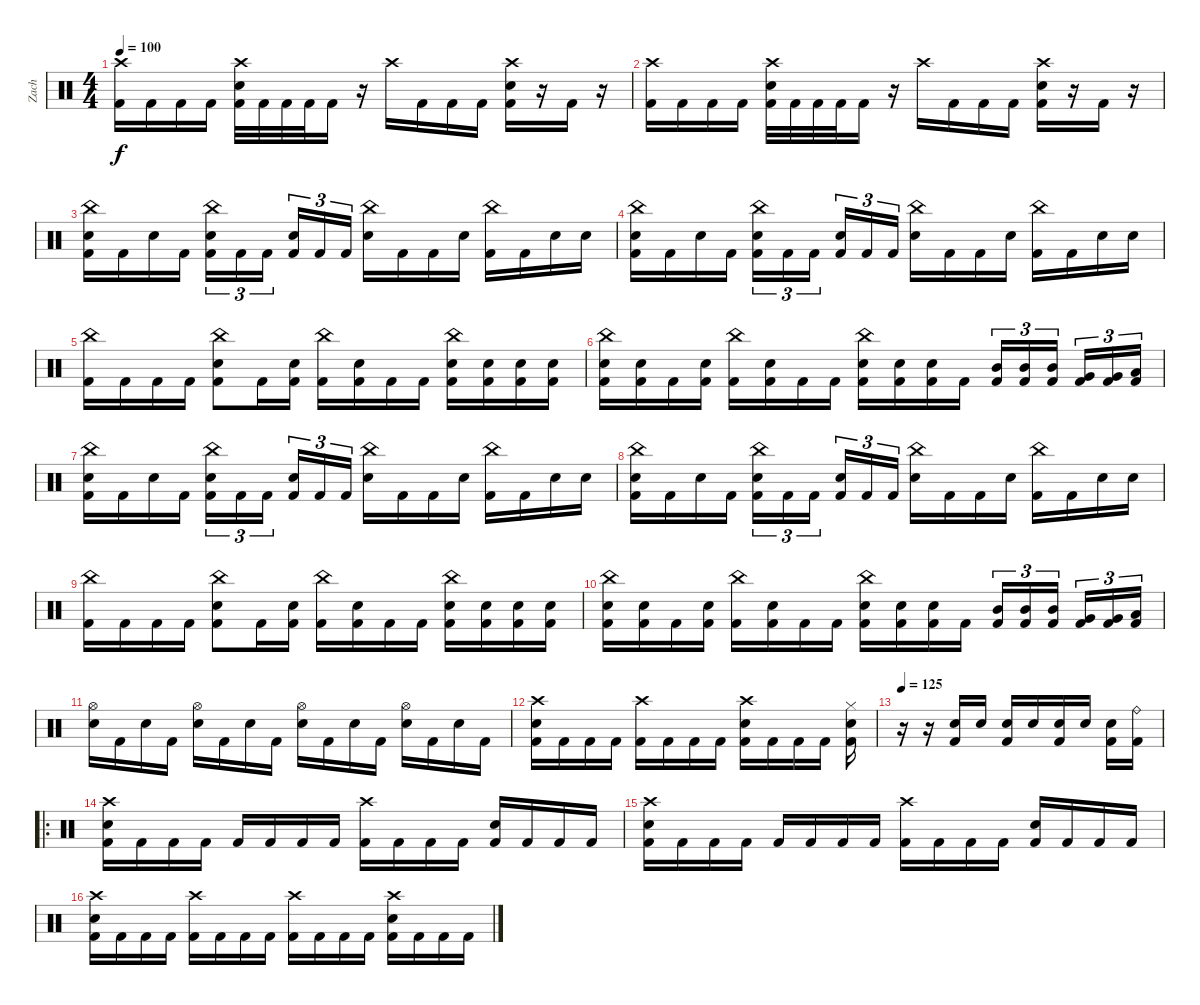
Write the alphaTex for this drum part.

\track ("Zach" "Zach") {instrument percussion}
\staff {score}
\articulation defaults
\ts (4 4)
\tempo 100
\clef neutral
\ks c
("Crash high (hit)" "Kick (hit) 2").16{dy f} "Kick (hit) 2".16 "Kick (hit) 2".16 "Kick (hit) 2".16 ("Crash high (hit)" "Electric Snare (hit)" "Kick (hit) 2").32 "Kick (hit) 2".32 "Kick (hit) 2".32 "Kick (hit) 2".32 "Kick (hit) 2".16 r.16 "Crash high (hit)".16 "Kick (hit) 2".16 "Kick (hit) 2".16 "Kick (hit) 2".16 ("Crash high (hit)" "Electric Snare (hit)" "Kick (hit) 2").16 r.16 "Kick (hit) 2".16 r.16 |
("Crash high (hit)" "Kick (hit) 2").16 "Kick (hit) 2".16 "Kick (hit) 2".16 "Kick (hit) 2".16 ("Crash high (hit)" "Electric Snare (hit)" "Kick (hit) 2").32 "Kick (hit) 2".32 "Kick (hit) 2".32 "Kick (hit) 2".32 "Kick (hit) 2".16 r.16 "Crash high (hit)".16 "Kick (hit) 2".16 "Kick (hit) 2".16 "Kick (hit) 2".16 ("Crash high (hit)" "Electric Snare (hit)" "Kick (hit) 2").16 r.16 "Kick (hit) 2".16 r.16 |
("China (hit)" "Electric Snare (hit)" "Kick (hit) 2").16 "Kick (hit) 2".16 "Electric Snare (hit)".16 "Kick (hit) 2".16 ("China (hit)" "Electric Snare (hit)" "Kick (hit) 2").16{tu (3 2)} "Kick (hit) 2".16{tu (3 2)} "Kick (hit) 2".16{tu (3 2) beam splitsecondary} ("Electric Snare (hit)" "Kick (hit) 2").16{tu (3 2)} "Kick (hit) 2".16{tu (3 2)} "Kick (hit) 2".16{tu (3 2)} ("China (hit)" "Electric Snare (hit)").16 "Kick (hit) 2".16 "Kick (hit) 2".16 "Electric Snare (hit)".16 ("China (hit)" "Kick (hit) 2").16 "Kick (hit) 2".16 "Electric Snare (hit)".16 "Electric Snare (hit)".16 |
("China (hit)" "Electric Snare (hit)" "Kick (hit) 2").16 "Kick (hit) 2".16 "Electric Snare (hit)".16 "Kick (hit) 2".16 ("China (hit)" "Electric Snare (hit)" "Kick (hit) 2").16{tu (3 2)} "Kick (hit) 2".16{tu (3 2)} "Kick (hit) 2".16{tu (3 2) beam splitsecondary} ("Electric Snare (hit)" "Kick (hit) 2").16{tu (3 2)} "Kick (hit) 2".16{tu (3 2)} "Kick (hit) 2".16{tu (3 2)} ("China (hit)" "Electric Snare (hit)").16 "Kick (hit) 2".16 "Kick (hit) 2".16 "Electric Snare (hit)".16 ("China (hit)" "Kick (hit) 2").16 "Kick (hit) 2".16 "Electric Snare (hit)".16 "Electric Snare (hit)".16 |
("China (hit)" "Kick (hit) 2").16 "Kick (hit) 2".16 "Kick (hit) 2".16 "Kick (hit) 2".16 ("China (hit)" "Electric Snare (hit)" "Kick (hit) 2").8 "Kick (hit) 2".16 ("Electric Snare (hit)" "Kick (hit) 2").16 ("China (hit)" "Kick (hit) 2").16 ("Electric Snare (hit)" "Kick (hit) 2").16 "Kick (hit) 2".16 "Kick (hit) 2".16 ("China (hit)" "Electric Snare (hit)" "Kick (hit) 2").16 ("Electric Snare (hit)" "Kick (hit) 2").16 ("Electric Snare (hit)" "Kick (hit) 2").16 ("Electric Snare (hit)" "Kick (hit) 2").16 |
("China (hit)" "Electric Snare (hit)" "Kick (hit) 2").16 ("Electric Snare (hit)" "Kick (hit) 2").16 "Kick (hit) 2".16 ("Electric Snare (hit)" "Kick (hit) 2").16 ("China (hit)" "Kick (hit) 2").16 ("Electric Snare (hit)" "Kick (hit) 2").16 "Kick (hit) 2".16 "Kick (hit) 2".16 ("China (hit)" "Electric Snare (hit)" "Kick (hit) 2").16 ("Electric Snare (hit)" "Kick (hit) 2").16 ("Electric Snare (hit)" "Kick (hit) 2").16 "Kick (hit) 2".16 ("Mid Tom (hit)" "Kick (hit) 2").16{tu (3 2)} ("Mid Tom (hit)" "Kick (hit) 2").16{tu (3 2)} ("Mid Tom (hit)" "Kick (hit) 2").16{tu (3 2) beam splitsecondary} ("Very Low Tom (hit)" "Kick (hit) 2").16{tu (3 2)} ("Very Low Tom (hit)" "Kick (hit) 2").16{tu (3 2)} ("Low Floor Tom (hit)" "Kick (hit) 2").16{tu (3 2)} |
("China (hit)" "Electric Snare (hit)" "Kick (hit) 2").16 "Kick (hit) 2".16 "Electric Snare (hit)".16 "Kick (hit) 2".16 ("China (hit)" "Electric Snare (hit)" "Kick (hit) 2").16{tu (3 2)} "Kick (hit) 2".16{tu (3 2)} "Kick (hit) 2".16{tu (3 2) beam splitsecondary} ("Electric Snare (hit)" "Kick (hit) 2").16{tu (3 2)} "Kick (hit) 2".16{tu (3 2)} "Kick (hit) 2".16{tu (3 2)} ("China (hit)" "Electric Snare (hit)").16 "Kick (hit) 2".16 "Kick (hit) 2".16 "Electric Snare (hit)".16 ("China (hit)" "Kick (hit) 2").16 "Kick (hit) 2".16 "Electric Snare (hit)".16 "Electric Snare (hit)".16 |
("China (hit)" "Electric Snare (hit)" "Kick (hit) 2").16 "Kick (hit) 2".16 "Electric Snare (hit)".16 "Kick (hit) 2".16 ("China (hit)" "Electric Snare (hit)" "Kick (hit) 2").16{tu (3 2)} "Kick (hit) 2".16{tu (3 2)} "Kick (hit) 2".16{tu (3 2) beam splitsecondary} ("Electric Snare (hit)" "Kick (hit) 2").16{tu (3 2)} "Kick (hit) 2".16{tu (3 2)} "Kick (hit) 2".16{tu (3 2)} ("China (hit)" "Electric Snare (hit)").16 "Kick (hit) 2".16 "Kick (hit) 2".16 "Electric Snare (hit)".16 ("China (hit)" "Kick (hit) 2").16 "Kick (hit) 2".16 "Electric Snare (hit)".16 "Electric Snare (hit)".16 |
("China (hit)" "Kick (hit) 2").16 "Kick (hit) 2".16 "Kick (hit) 2".16 "Kick (hit) 2".16 ("China (hit)" "Electric Snare (hit)" "Kick (hit) 2").8 "Kick (hit) 2".16 ("Electric Snare (hit)" "Kick (hit) 2").16 ("China (hit)" "Kick (hit) 2").16 ("Electric Snare (hit)" "Kick (hit) 2").16 "Kick (hit) 2".16 "Kick (hit) 2".16 ("China (hit)" "Electric Snare (hit)" "Kick (hit) 2").16 ("Electric Snare (hit)" "Kick (hit) 2").16 ("Electric Snare (hit)" "Kick (hit) 2").16 ("Electric Snare (hit)" "Kick (hit) 2").16 |
("China (hit)" "Electric Snare (hit)" "Kick (hit) 2").16 ("Electric Snare (hit)" "Kick (hit) 2").16 "Kick (hit) 2".16 ("Electric Snare (hit)" "Kick (hit) 2").16 ("China (hit)" "Kick (hit) 2").16 ("Electric Snare (hit)" "Kick (hit) 2").16 "Kick (hit) 2".16 "Kick (hit) 2".16 ("China (hit)" "Electric Snare (hit)" "Kick (hit) 2").16 ("Electric Snare (hit)" "Kick (hit) 2").16 ("Electric Snare (hit)" "Kick (hit) 2").16 "Kick (hit) 2".16 ("Mid Tom (hit)" "Kick (hit) 2").16{tu (3 2)} ("Mid Tom (hit)" "Kick (hit) 2").16{tu (3 2)} ("Mid Tom (hit)" "Kick (hit) 2").16{tu (3 2) beam splitsecondary} ("Very Low Tom (hit)" "Kick (hit) 2").16{tu (3 2)} ("Very Low Tom (hit)" "Kick (hit) 2").16{tu (3 2)} ("Low Floor Tom (hit)" "Kick (hit) 2").16{tu (3 2)} |
("Hi-Hat (open)" "Electric Snare (hit)").16 "Kick (hit) 2".16 "Electric Snare (hit)".16 "Kick (hit) 2".16 ("Hi-Hat (open)" "Electric Snare (hit)").16 "Kick (hit) 2".16 "Electric Snare (hit)".16 "Kick (hit) 2".16 ("Hi-Hat (open)" "Electric Snare (hit)").16 "Kick (hit) 2".16 "Electric Snare (hit)".16 "Kick (hit) 2".16 ("Hi-Hat (open)" "Electric Snare (hit)").16 "Kick (hit) 2".16 "Electric Snare (hit)".16 "Kick (hit) 2".16 |
("Crash high (hit)" "Electric Snare (hit)" "Kick (hit) 2").16 "Kick (hit) 2".16 "Kick (hit) 2".16 "Kick (hit) 2".16 ("Crash high (hit)" "Kick (hit) 2").16 "Kick (hit) 2".16 "Kick (hit) 2".16 "Kick (hit) 2".16 ("Crash high (hit)" "Electric Snare (hit)" "Kick (hit) 2").16 "Kick (hit) 2".16 "Kick (hit) 2".16 "Kick (hit) 2".16 ("Hi-Hat (closed)" "Electric Snare (hit)" "Kick (hit) 2").16 |
\tempo 125
r.16 r.16 ("Electric Snare (hit)" "Kick (hit) 2").16 "Electric Snare (hit)".16 ("Electric Snare (hit)" "Kick (hit) 2").16 "Electric Snare (hit)".16 ("Electric Snare (hit)" "Kick (hit) 2").16 "Electric Snare (hit)".16 ("Electric Snare (hit)" "Kick (hit) 2").16 ("Ride (bell)" "Kick (hit) 2").16 |
\ro
("Crash high (hit)" "Electric Snare (hit)" "Kick (hit) 2").16 "Kick (hit) 2".16 "Kick (hit) 2".16 "Kick (hit) 2".16 "Kick (hit) 2".16 "Kick (hit) 2".16 "Kick (hit) 2".16 "Kick (hit) 2".16 ("Crash high (hit)" "Kick (hit) 2").16 "Kick (hit) 2".16 "Kick (hit) 2".16 "Kick (hit) 2".16 ("Electric Snare (hit)" "Kick (hit) 2").16 "Kick (hit) 2".16 "Kick (hit) 2".16 "Kick (hit) 2".16 |
("Crash high (hit)" "Electric Snare (hit)" "Kick (hit) 2").16 "Kick (hit) 2".16 "Kick (hit) 2".16 "Kick (hit) 2".16 "Kick (hit) 2".16 "Kick (hit) 2".16 "Kick (hit) 2".16 "Kick (hit) 2".16 ("Crash high (hit)" "Kick (hit) 2").16 "Kick (hit) 2".16 "Kick (hit) 2".16 "Kick (hit) 2".16 ("Electric Snare (hit)" "Kick (hit) 2").16 "Kick (hit) 2".16 "Kick (hit) 2".16 "Kick (hit) 2".16 |
("Crash high (hit)" "Electric Snare (hit)" "Kick (hit) 2").16 "Kick (hit) 2".16 "Kick (hit) 2".16 "Kick (hit) 2".16 ("Crash high (hit)" "Kick (hit) 2").16 "Kick (hit) 2".16 "Kick (hit) 2".16 "Kick (hit) 2".16 ("Crash high (hit)" "Kick (hit) 2").16 "Kick (hit) 2".16 "Kick (hit) 2".16 "Kick (hit) 2".16 ("Crash high (hit)" "Electric Snare (hit)" "Kick (hit) 2").16 "Kick (hit) 2".16 "Kick (hit) 2".16 "Kick (hit) 2".16
